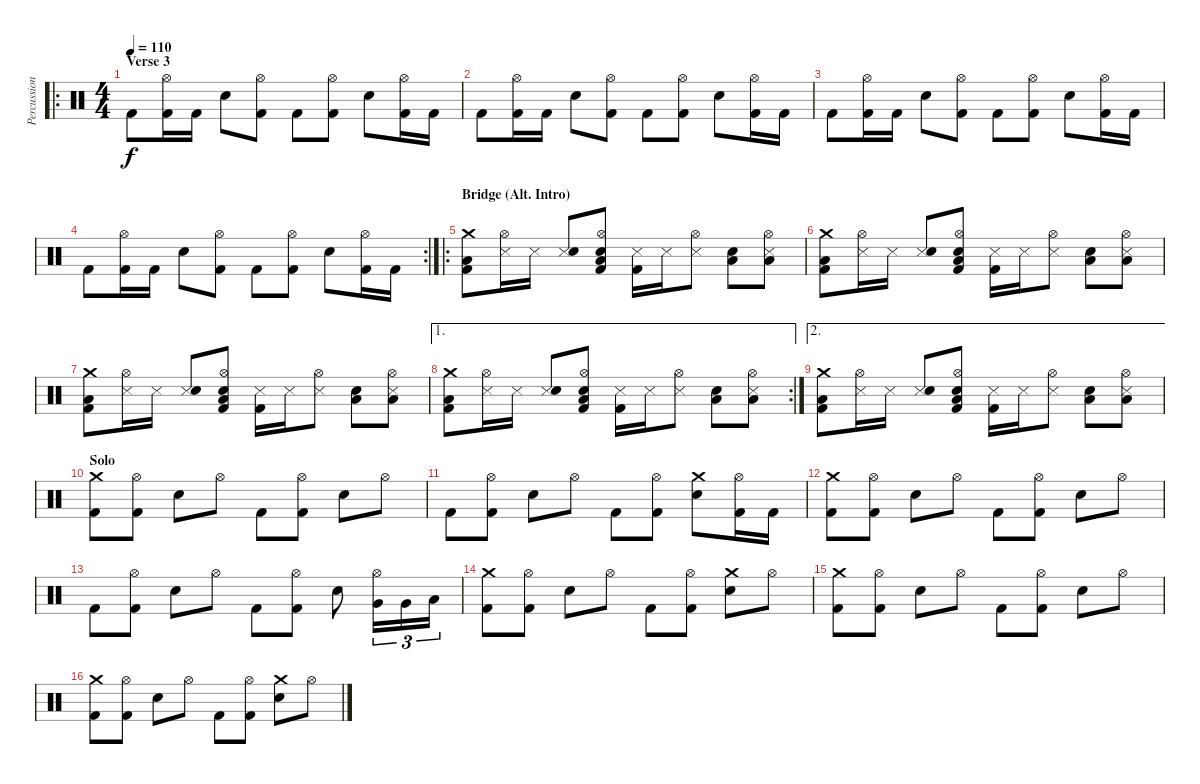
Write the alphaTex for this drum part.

\track ("Percussion" "Percussion") {instrument percussion}
\staff {score}
\articulation defaults
\ro
\ts (4 4)
\section ("" "Verse 3")
\tempo 110
\clef neutral
\ks c "Kick (hit) 2".8{dy f}
("Hi-Hat (open)" "Kick (hit) 2").16 "Kick (hit) 2".16 "Electric Snare (hit)".8 ("Hi-Hat (open)" "Kick (hit) 2").8 "Kick (hit) 2".8 ("Hi-Hat (open)" "Kick (hit) 2").8 "Electric Snare (hit)".8 ("Hi-Hat (open)" "Kick (hit) 2").16 "Kick (hit) 2".16 |
"Kick (hit) 2".8 ("Hi-Hat (open)" "Kick (hit) 2").16 "Kick (hit) 2".16 "Electric Snare (hit)".8 ("Hi-Hat (open)" "Kick (hit) 2").8 "Kick (hit) 2".8 ("Hi-Hat (open)" "Kick (hit) 2").8 "Electric Snare (hit)".8 ("Hi-Hat (open)" "Kick (hit) 2").16 "Kick (hit) 2".16 |
"Kick (hit) 2".8 ("Hi-Hat (open)" "Kick (hit) 2").16 "Kick (hit) 2".16 "Electric Snare (hit)".8 ("Hi-Hat (open)" "Kick (hit) 2").8 "Kick (hit) 2".8 ("Hi-Hat (open)" "Kick (hit) 2").8 "Electric Snare (hit)".8 ("Hi-Hat (open)" "Kick (hit) 2").16 "Kick (hit) 2".16 |
\rc 2 "Kick (hit) 2".8
("Hi-Hat (open)" "Kick (hit) 2").16 "Kick (hit) 2".16 "Electric Snare (hit)".8 ("Hi-Hat (open)" "Kick (hit) 2").8 "Kick (hit) 2".8 ("Hi-Hat (open)" "Kick (hit) 2").8 "Electric Snare (hit)".8 ("Hi-Hat (open)" "Kick (hit) 2").16 "Kick (hit) 2".16 |
\ro
\section ("" "Bridge (Alt. Intro)")
("Low Floor Tom (hit)" "Crash medium (hit)" "Kick (hit) 2").8 ("Snare (side stick) 3" "Hi-Hat (open)").16 "Snare (side stick) 3".16 ("Snare (side stick) 3" "Electric Snare (hit)").8 ("Low Floor Tom (hit)" "Kick (hit) 2" "Electric Snare (hit)" "Hi-Hat (open)").8 ("Snare (side stick) 3" "Kick (hit) 2").16 "Snare (side stick) 3".16 ("Snare (side stick) 3" "Hi-Hat (open)").8 ("Low Floor Tom (hit)" "Electric Snare (hit)").8 ("Snare (side stick) 3" "Low Floor Tom (hit)" "Hi-Hat (open)").8 |
("Low Floor Tom (hit)" "Crash medium (hit)" "Kick (hit) 2").8 ("Snare (side stick) 3" "Hi-Hat (open)").16 "Snare (side stick) 3".16 ("Snare (side stick) 3" "Electric Snare (hit)").8 ("Low Floor Tom (hit)" "Kick (hit) 2" "Electric Snare (hit)" "Hi-Hat (open)").8 ("Snare (side stick) 3" "Kick (hit) 2").16 "Snare (side stick) 3".16 ("Snare (side stick) 3" "Hi-Hat (open)").8 ("Low Floor Tom (hit)" "Electric Snare (hit)").8 ("Snare (side stick) 3" "Low Floor Tom (hit)" "Hi-Hat (open)").8 |
("Low Floor Tom (hit)" "Crash medium (hit)" "Kick (hit) 2").8 ("Snare (side stick) 3" "Hi-Hat (open)").16 "Snare (side stick) 3".16 ("Snare (side stick) 3" "Electric Snare (hit)").8 ("Low Floor Tom (hit)" "Kick (hit) 2" "Electric Snare (hit)" "Hi-Hat (open)").8 ("Snare (side stick) 3" "Kick (hit) 2").16 "Snare (side stick) 3".16 ("Snare (side stick) 3" "Hi-Hat (open)").8 ("Low Floor Tom (hit)" "Electric Snare (hit)").8 ("Snare (side stick) 3" "Low Floor Tom (hit)" "Hi-Hat (open)").8 |
\ae 1
\rc 2
("Low Floor Tom (hit)" "Crash medium (hit)" "Kick (hit) 2").8 ("Snare (side stick) 3" "Hi-Hat (open)").16 "Snare (side stick) 3".16 ("Snare (side stick) 3" "Electric Snare (hit)").8 ("Low Floor Tom (hit)" "Kick (hit) 2" "Electric Snare (hit)" "Hi-Hat (open)").8 ("Snare (side stick) 3" "Kick (hit) 2").16 "Snare (side stick) 3".16 ("Snare (side stick) 3" "Hi-Hat (open)").8 ("Low Floor Tom (hit)" "Electric Snare (hit)").8 ("Snare (side stick) 3" "Low Floor Tom (hit)" "Hi-Hat (open)").8 |
\ae 2
("Low Floor Tom (hit)" "Crash medium (hit)" "Kick (hit) 2").8 ("Snare (side stick) 3" "Hi-Hat (open)").16 "Snare (side stick) 3".16 ("Snare (side stick) 3" "Electric Snare (hit)").8 ("Low Floor Tom (hit)" "Kick (hit) 2" "Electric Snare (hit)" "Hi-Hat (open)").8 ("Snare (side stick) 3" "Kick (hit) 2").16 "Snare (side stick) 3".16 ("Snare (side stick) 3" "Hi-Hat (open)").8 ("Low Floor Tom (hit)" "Electric Snare (hit)").8 ("Snare (side stick) 3" "Low Floor Tom (hit)" "Hi-Hat (open)").8 |
\section ("" "Solo")
("Crash medium (hit)" "Kick (hit) 2").8 ("Hi-Hat (open)" "Kick (hit) 2").8 "Electric Snare (hit)".8 "Hi-Hat (open)".8 "Kick (hit) 2".8 ("Hi-Hat (open)" "Kick (hit) 2").8 "Electric Snare (hit)".8 "Hi-Hat (open)".8 |
"Kick (hit) 2".8 ("Hi-Hat (open)" "Kick (hit) 2").8 "Electric Snare (hit)".8 "Hi-Hat (open)".8 "Kick (hit) 2".8 ("Hi-Hat (open)" "Kick (hit) 2").8 ("Crash medium (hit)" "Electric Snare (hit)").8 ("Kick (hit) 2" "Hi-Hat (open)").16 "Kick (hit) 2".16 |
("Crash medium (hit)" "Kick (hit) 2").8 ("Hi-Hat (open)" "Kick (hit) 2").8 "Electric Snare (hit)".8 "Hi-Hat (open)".8 "Kick (hit) 2".8 ("Hi-Hat (open)" "Kick (hit) 2").8 "Electric Snare (hit)".8 "Hi-Hat (open)".8 |
"Kick (hit) 2".8 ("Hi-Hat (open)" "Kick (hit) 2").8 "Electric Snare (hit)".8 "Hi-Hat (open)".8 "Kick (hit) 2".8 ("Hi-Hat (open)" "Kick (hit) 2").8 "Electric Snare (hit)".8 ("Very Low Tom (hit)" "Hi-Hat (open)").16{tu (3 2)} "Very Low Tom (hit)".16{tu (3 2)} "Low Floor Tom (hit)".16{tu (3 2)} |
("Crash medium (hit)" "Kick (hit) 2").8 ("Hi-Hat (open)" "Kick (hit) 2").8 "Electric Snare (hit)".8 "Hi-Hat (open)".8 "Kick (hit) 2".8 ("Hi-Hat (open)" "Kick (hit) 2").8 ("Crash medium (hit)" "Electric Snare (hit)").8 "Hi-Hat (open)".8 |
("Crash medium (hit)" "Kick (hit) 2").8 ("Hi-Hat (open)" "Kick (hit) 2").8 "Electric Snare (hit)".8 "Hi-Hat (open)".8 "Kick (hit) 2".8 ("Hi-Hat (open)" "Kick (hit) 2").8 "Electric Snare (hit)".8 "Hi-Hat (open)".8 |
("Crash medium (hit)" "Kick (hit) 2").8 ("Hi-Hat (open)" "Kick (hit) 2").8 "Electric Snare (hit)".8 "Hi-Hat (open)".8 "Kick (hit) 2".8 ("Hi-Hat (open)" "Kick (hit) 2").8 ("Crash medium (hit)" "Electric Snare (hit)").8 "Hi-Hat (open)".8
